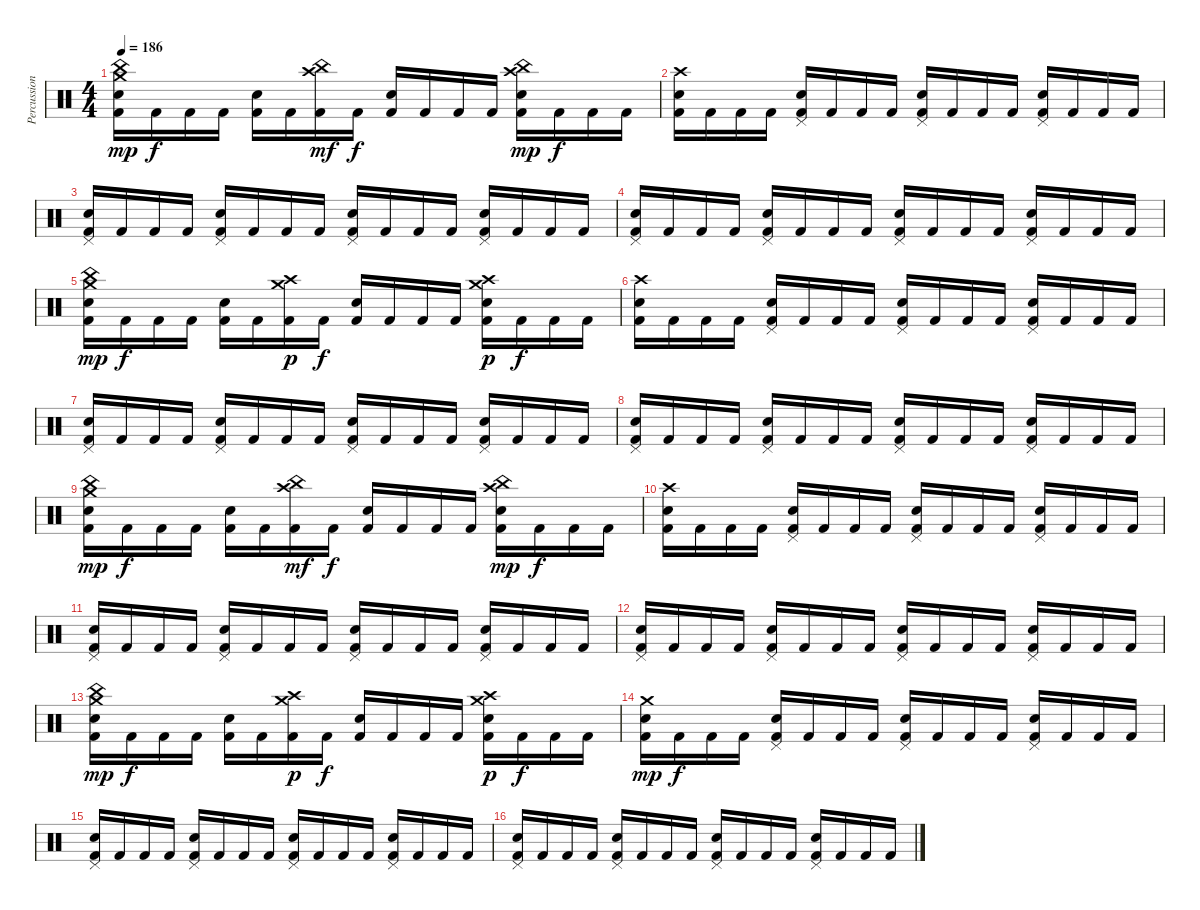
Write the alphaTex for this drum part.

\track ("Percussion" "Percussion") {instrument percussion}
\staff {score}
\articulation defaults
\ts (4 4)
\tempo 186
\clef neutral
\ks c
("Crash medium (hit)" "China (hit)" "Electric Snare (hit)" "Kick (hit) 2").16{dy mp} "Kick (hit) 2".16{dy f} "Kick (hit) 2".16 "Kick (hit) 2".16 ("Electric Snare (hit)" "Kick (hit) 2").16 "Kick (hit) 2".16 ("Crash high (hit)" "China (hit)" "Kick (hit) 2").16{dy mf} "Kick (hit) 2".16{dy f} ("Electric Snare (hit)" "Kick (hit) 2").16 "Kick (hit) 2".16 "Kick (hit) 2".16 "Kick (hit) 2".16 ("Crash high (hit)" "China (hit)" "Electric Snare (hit)" "Kick (hit) 2").16{dy mp} "Kick (hit) 2".16{dy f} "Kick (hit) 2".16 "Kick (hit) 2".16 |
("Crash high (hit)" "Electric Snare (hit)" "Kick (hit) 2").16 "Kick (hit) 2".16 "Kick (hit) 2".16 "Kick (hit) 2".16 ("Pedal Hi-Hat (hit)" "Electric Snare (hit)" "Kick (hit) 2").16 "Kick (hit) 2".16 "Kick (hit) 2".16 "Kick (hit) 2".16 ("Pedal Hi-Hat (hit)" "Electric Snare (hit)" "Kick (hit) 2").16 "Kick (hit) 2".16 "Kick (hit) 2".16 "Kick (hit) 2".16 ("Pedal Hi-Hat (hit)" "Electric Snare (hit)" "Kick (hit) 2").16 "Kick (hit) 2".16 "Kick (hit) 2".16 "Kick (hit) 2".16 |
("Pedal Hi-Hat (hit)" "Electric Snare (hit)" "Kick (hit) 2").16 "Kick (hit) 2".16 "Kick (hit) 2".16 "Kick (hit) 2".16 ("Pedal Hi-Hat (hit)" "Electric Snare (hit)" "Kick (hit) 2").16 "Kick (hit) 2".16 "Kick (hit) 2".16 "Kick (hit) 2".16 ("Pedal Hi-Hat (hit)" "Electric Snare (hit)" "Kick (hit) 2").16 "Kick (hit) 2".16 "Kick (hit) 2".16 "Kick (hit) 2".16 ("Pedal Hi-Hat (hit)" "Electric Snare (hit)" "Kick (hit) 2").16 "Kick (hit) 2".16 "Kick (hit) 2".16 "Kick (hit) 2".16 |
("Pedal Hi-Hat (hit)" "Electric Snare (hit)" "Kick (hit) 2").16 "Kick (hit) 2".16 "Kick (hit) 2".16 "Kick (hit) 2".16 ("Pedal Hi-Hat (hit)" "Electric Snare (hit)" "Kick (hit) 2").16 "Kick (hit) 2".16 "Kick (hit) 2".16 "Kick (hit) 2".16 ("Pedal Hi-Hat (hit)" "Electric Snare (hit)" "Kick (hit) 2").16 "Kick (hit) 2".16 "Kick (hit) 2".16 "Kick (hit) 2".16 ("Pedal Hi-Hat (hit)" "Electric Snare (hit)" "Kick (hit) 2").16 "Kick (hit) 2".16 "Kick (hit) 2".16 "Kick (hit) 2".16 |
("Crash medium (hit)" "China (hit)" "Electric Snare (hit)" "Kick (hit) 2").16{dy mp} "Kick (hit) 2".16{dy f} "Kick (hit) 2".16 "Kick (hit) 2".16 ("Electric Snare (hit)" "Kick (hit) 2").16 "Kick (hit) 2".16 ("Crash medium (hit)" "Crash high (hit)" "Kick (hit) 2").16{dy p} "Kick (hit) 2".16{dy f} ("Electric Snare (hit)" "Kick (hit) 2").16 "Kick (hit) 2".16 "Kick (hit) 2".16 "Kick (hit) 2".16 ("Crash medium (hit)" "Crash high (hit)" "Electric Snare (hit)" "Kick (hit) 2").16{dy p} "Kick (hit) 2".16{dy f} "Kick (hit) 2".16 "Kick (hit) 2".16 |
("Crash high (hit)" "Electric Snare (hit)" "Kick (hit) 2").16 "Kick (hit) 2".16 "Kick (hit) 2".16 "Kick (hit) 2".16 ("Pedal Hi-Hat (hit)" "Electric Snare (hit)" "Kick (hit) 2").16 "Kick (hit) 2".16 "Kick (hit) 2".16 "Kick (hit) 2".16 ("Pedal Hi-Hat (hit)" "Electric Snare (hit)" "Kick (hit) 2").16 "Kick (hit) 2".16 "Kick (hit) 2".16 "Kick (hit) 2".16 ("Pedal Hi-Hat (hit)" "Electric Snare (hit)" "Kick (hit) 2").16 "Kick (hit) 2".16 "Kick (hit) 2".16 "Kick (hit) 2".16 |
("Pedal Hi-Hat (hit)" "Electric Snare (hit)" "Kick (hit) 2").16 "Kick (hit) 2".16 "Kick (hit) 2".16 "Kick (hit) 2".16 ("Pedal Hi-Hat (hit)" "Electric Snare (hit)" "Kick (hit) 2").16 "Kick (hit) 2".16 "Kick (hit) 2".16 "Kick (hit) 2".16 ("Pedal Hi-Hat (hit)" "Electric Snare (hit)" "Kick (hit) 2").16 "Kick (hit) 2".16 "Kick (hit) 2".16 "Kick (hit) 2".16 ("Pedal Hi-Hat (hit)" "Electric Snare (hit)" "Kick (hit) 2").16 "Kick (hit) 2".16 "Kick (hit) 2".16 "Kick (hit) 2".16 |
("Pedal Hi-Hat (hit)" "Electric Snare (hit)" "Kick (hit) 2").16 "Kick (hit) 2".16 "Kick (hit) 2".16 "Kick (hit) 2".16 ("Pedal Hi-Hat (hit)" "Electric Snare (hit)" "Kick (hit) 2").16 "Kick (hit) 2".16 "Kick (hit) 2".16 "Kick (hit) 2".16 ("Pedal Hi-Hat (hit)" "Electric Snare (hit)" "Kick (hit) 2").16 "Kick (hit) 2".16 "Kick (hit) 2".16 "Kick (hit) 2".16 ("Pedal Hi-Hat (hit)" "Electric Snare (hit)" "Kick (hit) 2").16 "Kick (hit) 2".16 "Kick (hit) 2".16 "Kick (hit) 2".16 |
("Crash medium (hit)" "China (hit)" "Electric Snare (hit)" "Kick (hit) 2").16{dy mp} "Kick (hit) 2".16{dy f} "Kick (hit) 2".16 "Kick (hit) 2".16 ("Electric Snare (hit)" "Kick (hit) 2").16 "Kick (hit) 2".16 ("Crash high (hit)" "China (hit)" "Kick (hit) 2").16{dy mf} "Kick (hit) 2".16{dy f} ("Electric Snare (hit)" "Kick (hit) 2").16 "Kick (hit) 2".16 "Kick (hit) 2".16 "Kick (hit) 2".16 ("Crash high (hit)" "China (hit)" "Electric Snare (hit)" "Kick (hit) 2").16{dy mp} "Kick (hit) 2".16{dy f} "Kick (hit) 2".16 "Kick (hit) 2".16 |
("Crash high (hit)" "Electric Snare (hit)" "Kick (hit) 2").16 "Kick (hit) 2".16 "Kick (hit) 2".16 "Kick (hit) 2".16 ("Pedal Hi-Hat (hit)" "Electric Snare (hit)" "Kick (hit) 2").16 "Kick (hit) 2".16 "Kick (hit) 2".16 "Kick (hit) 2".16 ("Pedal Hi-Hat (hit)" "Electric Snare (hit)" "Kick (hit) 2").16 "Kick (hit) 2".16 "Kick (hit) 2".16 "Kick (hit) 2".16 ("Pedal Hi-Hat (hit)" "Electric Snare (hit)" "Kick (hit) 2").16 "Kick (hit) 2".16 "Kick (hit) 2".16 "Kick (hit) 2".16 |
("Pedal Hi-Hat (hit)" "Electric Snare (hit)" "Kick (hit) 2").16 "Kick (hit) 2".16 "Kick (hit) 2".16 "Kick (hit) 2".16 ("Pedal Hi-Hat (hit)" "Electric Snare (hit)" "Kick (hit) 2").16 "Kick (hit) 2".16 "Kick (hit) 2".16 "Kick (hit) 2".16 ("Pedal Hi-Hat (hit)" "Electric Snare (hit)" "Kick (hit) 2").16 "Kick (hit) 2".16 "Kick (hit) 2".16 "Kick (hit) 2".16 ("Pedal Hi-Hat (hit)" "Electric Snare (hit)" "Kick (hit) 2").16 "Kick (hit) 2".16 "Kick (hit) 2".16 "Kick (hit) 2".16 |
("Pedal Hi-Hat (hit)" "Electric Snare (hit)" "Kick (hit) 2").16 "Kick (hit) 2".16 "Kick (hit) 2".16 "Kick (hit) 2".16 ("Pedal Hi-Hat (hit)" "Electric Snare (hit)" "Kick (hit) 2").16 "Kick (hit) 2".16 "Kick (hit) 2".16 "Kick (hit) 2".16 ("Pedal Hi-Hat (hit)" "Electric Snare (hit)" "Kick (hit) 2").16 "Kick (hit) 2".16 "Kick (hit) 2".16 "Kick (hit) 2".16 ("Pedal Hi-Hat (hit)" "Electric Snare (hit)" "Kick (hit) 2").16 "Kick (hit) 2".16 "Kick (hit) 2".16 "Kick (hit) 2".16 |
("Crash medium (hit)" "China (hit)" "Electric Snare (hit)" "Kick (hit) 2").16{dy mp} "Kick (hit) 2".16{dy f} "Kick (hit) 2".16 "Kick (hit) 2".16 ("Electric Snare (hit)" "Kick (hit) 2").16 "Kick (hit) 2".16 ("Crash medium (hit)" "Crash high (hit)" "Kick (hit) 2").16{dy p} "Kick (hit) 2".16{dy f} ("Electric Snare (hit)" "Kick (hit) 2").16 "Kick (hit) 2".16 "Kick (hit) 2".16 "Kick (hit) 2".16 ("Crash medium (hit)" "Crash high (hit)" "Electric Snare (hit)" "Kick (hit) 2").16{dy p} "Kick (hit) 2".16{dy f} "Kick (hit) 2".16 "Kick (hit) 2".16 |
("Crash medium (hit)" "Electric Snare (hit)" "Kick (hit) 2").16{dy mp} "Kick (hit) 2".16{dy f} "Kick (hit) 2".16 "Kick (hit) 2".16 ("Pedal Hi-Hat (hit)" "Electric Snare (hit)" "Kick (hit) 2").16 "Kick (hit) 2".16 "Kick (hit) 2".16 "Kick (hit) 2".16 ("Pedal Hi-Hat (hit)" "Electric Snare (hit)" "Kick (hit) 2").16 "Kick (hit) 2".16 "Kick (hit) 2".16 "Kick (hit) 2".16 ("Pedal Hi-Hat (hit)" "Electric Snare (hit)" "Kick (hit) 2").16 "Kick (hit) 2".16 "Kick (hit) 2".16 "Kick (hit) 2".16 |
("Pedal Hi-Hat (hit)" "Electric Snare (hit)" "Kick (hit) 2").16 "Kick (hit) 2".16 "Kick (hit) 2".16 "Kick (hit) 2".16 ("Pedal Hi-Hat (hit)" "Electric Snare (hit)" "Kick (hit) 2").16 "Kick (hit) 2".16 "Kick (hit) 2".16 "Kick (hit) 2".16 ("Pedal Hi-Hat (hit)" "Electric Snare (hit)" "Kick (hit) 2").16 "Kick (hit) 2".16 "Kick (hit) 2".16 "Kick (hit) 2".16 ("Pedal Hi-Hat (hit)" "Electric Snare (hit)" "Kick (hit) 2").16 "Kick (hit) 2".16 "Kick (hit) 2".16 "Kick (hit) 2".16 |
("Pedal Hi-Hat (hit)" "Electric Snare (hit)" "Kick (hit) 2").16 "Kick (hit) 2".16 "Kick (hit) 2".16 "Kick (hit) 2".16 ("Pedal Hi-Hat (hit)" "Electric Snare (hit)" "Kick (hit) 2").16 "Kick (hit) 2".16 "Kick (hit) 2".16 "Kick (hit) 2".16 ("Pedal Hi-Hat (hit)" "Electric Snare (hit)" "Kick (hit) 2").16 "Kick (hit) 2".16 "Kick (hit) 2".16 "Kick (hit) 2".16 ("Pedal Hi-Hat (hit)" "Electric Snare (hit)" "Kick (hit) 2").16 "Kick (hit) 2".16 "Kick (hit) 2".16 "Kick (hit) 2".16
